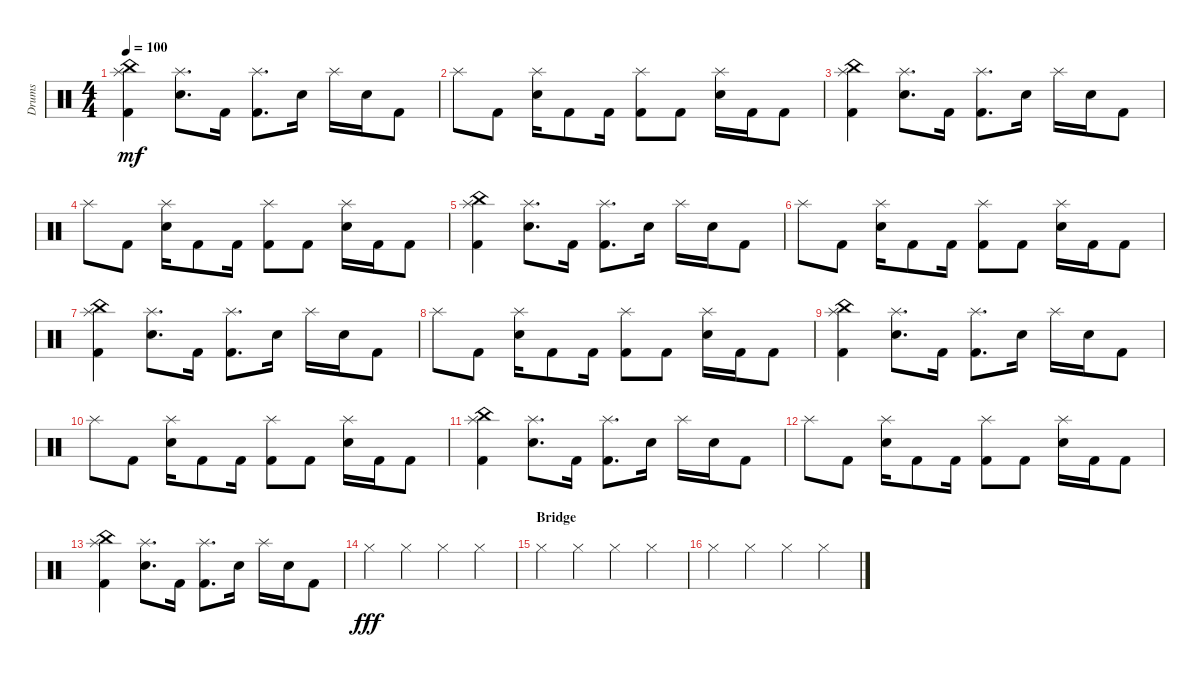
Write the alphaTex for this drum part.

\defaultSystemsLayout 4
\bracketExtendMode groupsimilarinstruments
\otherSystemsTrackNameOrientation horizontal
\track ("Prakarsh" "Drums") {instrument percussion}
\staff {score}
\articulation defaults
\ts (4 4)
\tempo 100
\clef neutral
\ks c
("Kick (hit) 2" "China (hit)" "Splash (hit)").4{dy mf beam Down} ("Snare (hit) 2" "Splash (hit)").8{d beam Down} "Kick (hit) 2".16{beam Down} ("Kick (hit) 2" "Splash (hit)").8{d beam Down} "Snare (hit) 2".16{beam Down} "Splash (hit)".16{beam Down} "Snare (hit) 2".16{beam Down} "Kick (hit) 2".8{beam Down} |
"Splash (hit)".8{beam Down} "Kick (hit) 2".8{beam Down} ("Snare (hit) 2" "Splash (hit)").16{beam Down} "Kick (hit) 2".8{beam Down} "Kick (hit) 2".16{beam Down} ("Kick (hit) 2" "Splash (hit)").8{beam Down} "Kick (hit) 2".8{beam Down} ("Snare (hit) 2" "Splash (hit)").16{beam Down} "Kick (hit) 2".16{beam Down} "Kick (hit) 2".8{beam Down} |
("Kick (hit) 2" "China (hit)" "Splash (hit)").4{beam Down} ("Snare (hit) 2" "Splash (hit)").8{d beam Down} "Kick (hit) 2".16{beam Down} ("Kick (hit) 2" "Splash (hit)").8{d beam Down} "Snare (hit) 2".16{beam Down} "Splash (hit)".16{beam Down} "Snare (hit) 2".16{beam Down} "Kick (hit) 2".8{beam Down} |
"Splash (hit)".8{beam Down} "Kick (hit) 2".8{beam Down} ("Snare (hit) 2" "Splash (hit)").16{beam Down} "Kick (hit) 2".8{beam Down} "Kick (hit) 2".16{beam Down} ("Kick (hit) 2" "Splash (hit)").8{beam Down} "Kick (hit) 2".8{beam Down} ("Snare (hit) 2" "Splash (hit)").16{beam Down} "Kick (hit) 2".16{beam Down} "Kick (hit) 2".8{beam Down} |
("Kick (hit) 2" "China (hit)" "Splash (hit)").4{beam Down} ("Snare (hit) 2" "Splash (hit)").8{d beam Down} "Kick (hit) 2".16{beam Down} ("Kick (hit) 2" "Splash (hit)").8{d beam Down} "Snare (hit) 2".16{beam Down} "Splash (hit)".16{beam Down} "Snare (hit) 2".16{beam Down} "Kick (hit) 2".8{beam Down} |
"Splash (hit)".8{beam Down} "Kick (hit) 2".8{beam Down} ("Snare (hit) 2" "Splash (hit)").16{beam Down} "Kick (hit) 2".8{beam Down} "Kick (hit) 2".16{beam Down} ("Kick (hit) 2" "Splash (hit)").8{beam Down} "Kick (hit) 2".8{beam Down} ("Snare (hit) 2" "Splash (hit)").16{beam Down} "Kick (hit) 2".16{beam Down} "Kick (hit) 2".8{beam Down} |
("Kick (hit) 2" "China (hit)" "Splash (hit)").4{beam Down} ("Snare (hit) 2" "Splash (hit)").8{d beam Down} "Kick (hit) 2".16{beam Down} ("Kick (hit) 2" "Splash (hit)").8{d beam Down} "Snare (hit) 2".16{beam Down} "Splash (hit)".16{beam Down} "Snare (hit) 2".16{beam Down} "Kick (hit) 2".8{beam Down} |
"Splash (hit)".8{beam Down} "Kick (hit) 2".8{beam Down} ("Snare (hit) 2" "Splash (hit)").16{beam Down} "Kick (hit) 2".8{beam Down} "Kick (hit) 2".16{beam Down} ("Kick (hit) 2" "Splash (hit)").8{beam Down} "Kick (hit) 2".8{beam Down} ("Snare (hit) 2" "Splash (hit)").16{beam Down} "Kick (hit) 2".16{beam Down} "Kick (hit) 2".8{beam Down} |
("Kick (hit) 2" "China (hit)" "Splash (hit)").4{beam Down} ("Snare (hit) 2" "Splash (hit)").8{d beam Down} "Kick (hit) 2".16{beam Down} ("Kick (hit) 2" "Splash (hit)").8{d beam Down} "Snare (hit) 2".16{beam Down} "Splash (hit)".16{beam Down} "Snare (hit) 2".16{beam Down} "Kick (hit) 2".8{beam Down} |
"Splash (hit)".8{beam Down} "Kick (hit) 2".8{beam Down} ("Snare (hit) 2" "Splash (hit)").16{beam Down} "Kick (hit) 2".8{beam Down} "Kick (hit) 2".16{beam Down} ("Kick (hit) 2" "Splash (hit)").8{beam Down} "Kick (hit) 2".8{beam Down} ("Snare (hit) 2" "Splash (hit)").16{beam Down} "Kick (hit) 2".16{beam Down} "Kick (hit) 2".8{beam Down} |
("Kick (hit) 2" "China (hit)" "Splash (hit)").4{beam Down} ("Snare (hit) 2" "Splash (hit)").8{d beam Down} "Kick (hit) 2".16{beam Down} ("Kick (hit) 2" "Splash (hit)").8{d beam Down} "Snare (hit) 2".16{beam Down} "Splash (hit)".16{beam Down} "Snare (hit) 2".16{beam Down} "Kick (hit) 2".8{beam Down} |
"Splash (hit)".8{beam Down} "Kick (hit) 2".8{beam Down} ("Snare (hit) 2" "Splash (hit)").16{beam Down} "Kick (hit) 2".8{beam Down} "Kick (hit) 2".16{beam Down} ("Kick (hit) 2" "Splash (hit)").8{beam Down} "Kick (hit) 2".8{beam Down} ("Snare (hit) 2" "Splash (hit)").16{beam Down} "Kick (hit) 2".16{beam Down} "Kick (hit) 2".8{beam Down} |
("Kick (hit) 2" "China (hit)" "Splash (hit)").4{beam Down} ("Snare (hit) 2" "Splash (hit)").8{d beam Down} "Kick (hit) 2".16{beam Down} ("Kick (hit) 2" "Splash (hit)").8{d beam Down} "Snare (hit) 2".16{beam Down} "Splash (hit)".16{beam Down} "Snare (hit) 2".16{beam Down} "Kick (hit) 2".8{beam Down} |
"Hi-Hat (closed)".4{dy fff beam Down} "Hi-Hat (closed)".4{beam Down} "Hi-Hat (closed)".4{beam Down} "Hi-Hat (closed)".4{beam Down} |
\section ("" "Bridge")
"Hi-Hat (closed)".4{beam Down} "Hi-Hat (closed)".4{beam Down} "Hi-Hat (closed)".4{beam Down} "Hi-Hat (closed)".4{beam Down} |
"Hi-Hat (closed)".4{beam Down} "Hi-Hat (closed)".4{beam Down} "Hi-Hat (closed)".4{beam Down} "Hi-Hat (closed)".4{beam Down}
